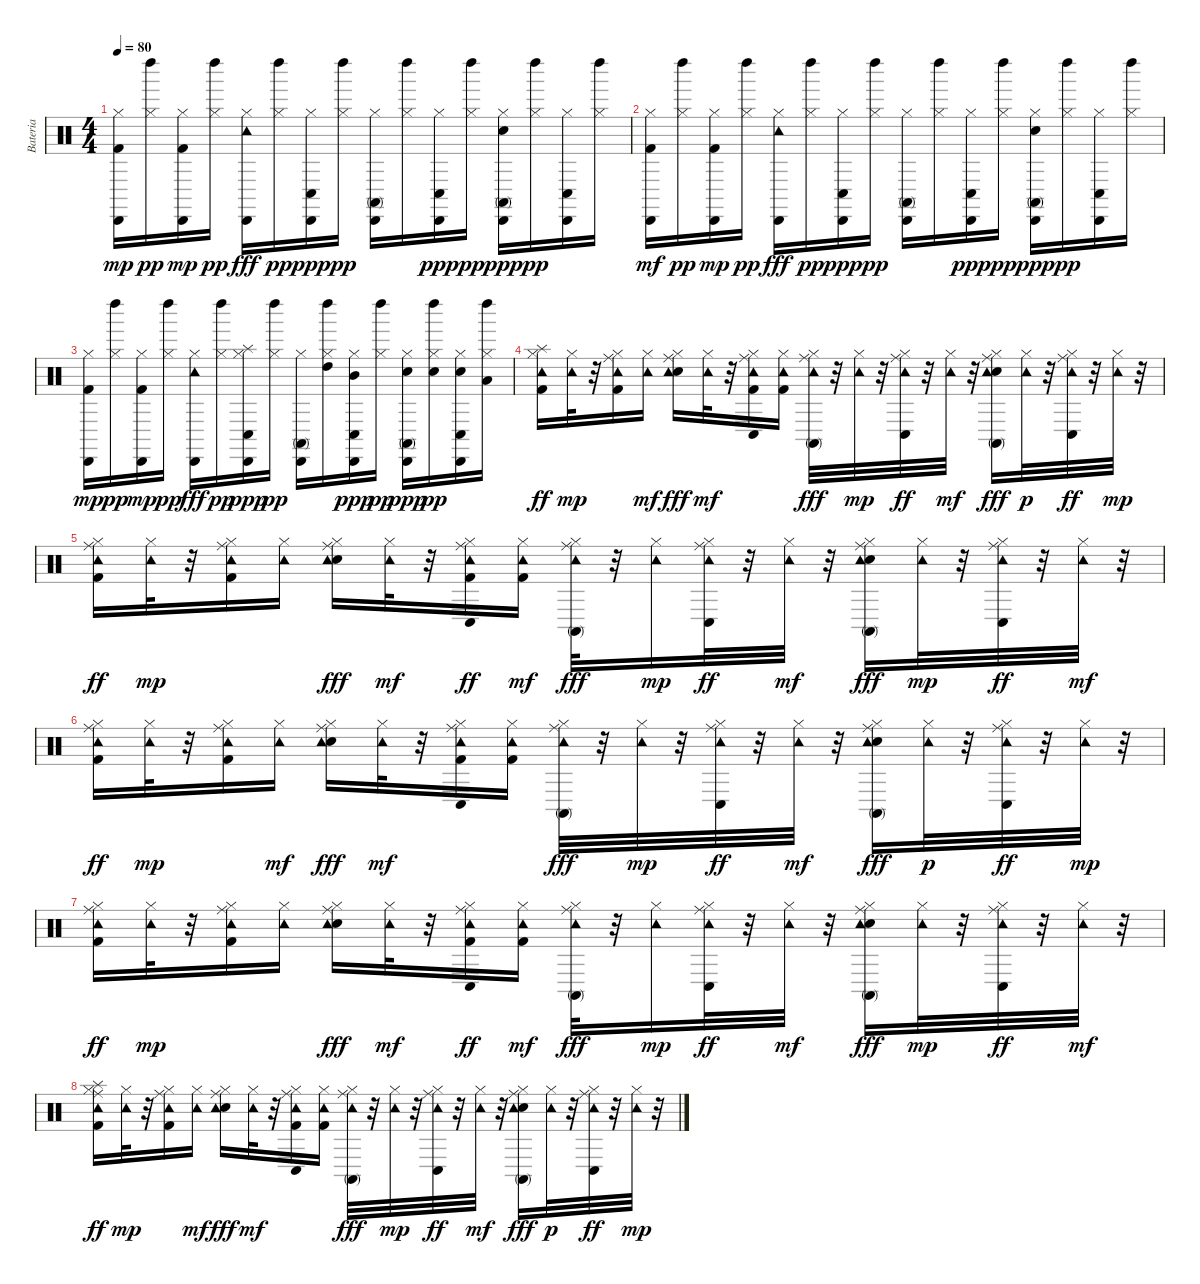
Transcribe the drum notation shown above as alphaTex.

\track ("Bateria" "Bateria") {instrument percussion}
\staff {score}
\articulation defaults
\ts (4 4)
\tempo 80
\clef neutral
\ks c
("Hi-Hat (closed)" "Cabasa (hit)" "Kick (hit) 2").16{dy mp} ("Hi-Hat (closed)" "Left Maraca (hit)").16{dy pp} ("Hi-Hat (closed)" "Cabasa (hit)" "Kick (hit) 2").16{dy mp} ("Hi-Hat (closed)" "Left Maraca (hit)").16{dy pp} ("Hi-Hat (closed)" "Cabasa (hit)" "Tambourine (hit)").16{dy fff} ("Hi-Hat (closed)" "Left Maraca (hit)").16{dy pp} ("Hi-Hat (closed)" "Conga low (hit)" "Cabasa (hit)").16{dy ppp} ("Hi-Hat (closed)" "Left Maraca (hit)").16{dy pp} ("Hi-Hat (closed)" "Conga high (mute)" "Cabasa (hit)").16 ("Hi-Hat (closed)" "Left Maraca (hit)").16 ("Hi-Hat (closed)" "Conga low (hit)" "Cabasa (hit)").16{dy ppp} ("Hi-Hat (closed)" "Left Maraca (hit)").16{dy pp} ("Electric Snare (hit)" "Hi-Hat (closed)" "Conga high (mute)" "Cabasa (hit)").16{dy ppp} ("Hi-Hat (closed)" "Left Maraca (hit)").16{dy pp} ("Hi-Hat (closed)" "Conga low (hit)" "Cabasa (hit)").16 ("Hi-Hat (closed)" "Left Maraca (hit)").16 |
("Hi-Hat (closed)" "Cabasa (hit)" "Kick (hit) 2").16{dy mf} ("Hi-Hat (closed)" "Left Maraca (hit)").16{dy pp} ("Hi-Hat (closed)" "Cabasa (hit)" "Kick (hit) 2").16{dy mp} ("Hi-Hat (closed)" "Left Maraca (hit)").16{dy pp} ("Hi-Hat (closed)" "Cabasa (hit)" "Tambourine (hit)").16{dy fff} ("Hi-Hat (closed)" "Left Maraca (hit)").16{dy pp} ("Hi-Hat (closed)" "Conga low (hit)" "Cabasa (hit)").16{dy ppp} ("Hi-Hat (closed)" "Left Maraca (hit)").16{dy pp} ("Hi-Hat (closed)" "Conga high (mute)" "Cabasa (hit)").16 ("Hi-Hat (closed)" "Left Maraca (hit)").16 ("Hi-Hat (closed)" "Conga low (hit)" "Cabasa (hit)").16{dy ppp} ("Hi-Hat (closed)" "Left Maraca (hit)").16{dy pp} ("Electric Snare (hit)" "Hi-Hat (closed)" "Conga high (mute)" "Cabasa (hit)").16{dy ppp} ("Hi-Hat (closed)" "Left Maraca (hit)").16{dy pp} ("Hi-Hat (closed)" "Conga low (hit)" "Cabasa (hit)").16 ("Hi-Hat (closed)" "Left Maraca (hit)").16 |
("Hi-Hat (closed)" "Cabasa (hit)" "Kick (hit) 2").16{dy mp} ("Hi-Hat (closed)" "Left Maraca (hit)").16{dy pp} ("Hi-Hat (closed)" "Cabasa (hit)" "Kick (hit) 2").16{dy mp} ("Hi-Hat (closed)" "Left Maraca (hit)").16{dy pp} ("Hi-Hat (closed)" "Cabasa (hit)" "Tambourine (hit)").16{dy fff} ("Hi-Hat (closed)" "Left Maraca (hit)").16{dy pp} ("Hi-Hat (closed)" "Conga low (hit)" "Splash (hit)" "Cabasa (hit)").16{dy ppp} ("Hi-Hat (closed)" "Left Maraca (hit)").16{dy pp} ("Hi-Hat (closed)" "Conga high (mute)" "Cabasa (hit)").16 ("Hi-Hat (closed)" "High Tom (hit)" "Left Maraca (hit)").16 ("Hi-Hat (closed)" "Conga low (hit)" "Mid Tom (hit)" "Cabasa (hit)").16{dy ppp} ("Hi-Hat (closed)" "Left Maraca (hit)").16{dy pp} ("Electric Snare (hit)" "Hi-Hat (closed)" "Conga high (mute)" "Cabasa (hit)").16{dy ppp} ("Hi-Hat (closed)" "Electric Snare (hit)" "Left Maraca (hit)").16{dy pp} ("Hi-Hat (closed)" "Conga low (hit)" "Electric Snare (hit)" "Cabasa (hit)").16 ("Hi-Hat (closed)" "Low Floor Tom (hit)" "Left Maraca (hit)").16 |
("Hi-Hat (closed)" "Tambourine (hit)" "Kick (hit) 2" "Splash (hit)").16{dy ff} ("Hi-Hat (closed)" "Tambourine (hit)").32{dy mp} r.32 ("Hi-Hat (closed)" "Ride (middle)" "Tambourine (hit)" "Kick (hit) 2").16 ("Hi-Hat (closed)" "Tambourine (hit)").16{dy mf} ("Electric Snare (hit)" "Hi-Hat (closed)" "Ride (middle)" "Tambourine (hit)").16{dy fff} ("Hi-Hat (closed)" "Tambourine (hit)").32{dy mf} r.32 ("Hi-Hat (closed)" "Conga low (hit)" "Ride (middle)" "Tambourine (hit)" "Kick (hit) 2").16 ("Hi-Hat (closed)" "Tambourine (hit)" "Kick (hit) 2").16 ("Hi-Hat (closed)" "Conga high (mute)" "Ride (middle)" "Tambourine (hit)").32{dy fff} r.32 ("Hi-Hat (closed)" "Tambourine (hit)").32{dy mp} r.32 ("Hi-Hat (closed)" "Conga low (hit)" "Ride (middle)" "Tambourine (hit)").32{dy ff} r.32 ("Hi-Hat (closed)" "Tambourine (hit)").32{dy mf} r.32 ("Electric Snare (hit)" "Hi-Hat (closed)" "Conga high (mute)" "Ride (middle)" "Tambourine (hit)").16{dy fff} ("Hi-Hat (closed)" "Tambourine (hit)").32{dy p} r.32 ("Hi-Hat (closed)" "Conga low (hit)" "Ride (middle)" "Tambourine (hit)").32{dy ff} r.32 ("Hi-Hat (closed)" "Tambourine (hit)").32{dy mp} r.32 |
("Hi-Hat (closed)" "Ride (middle)" "Tambourine (hit)" "Kick (hit) 2").16{dy ff} ("Hi-Hat (closed)" "Tambourine (hit)").32{dy mp} r.32 ("Hi-Hat (closed)" "Ride (middle)" "Tambourine (hit)" "Kick (hit) 2").16 ("Hi-Hat (closed)" "Tambourine (hit)").16 ("Electric Snare (hit)" "Hi-Hat (closed)" "Ride (middle)" "Tambourine (hit)").16{dy fff} ("Hi-Hat (closed)" "Tambourine (hit)").32{dy mf} r.32 ("Hi-Hat (closed)" "Conga low (hit)" "Ride (middle)" "Tambourine (hit)" "Kick (hit) 2").16{dy ff} ("Hi-Hat (closed)" "Tambourine (hit)" "Kick (hit) 2").16{dy mf} ("Hi-Hat (closed)" "Conga high (mute)" "Ride (middle)" "Tambourine (hit)").32{dy fff} r.32 ("Hi-Hat (closed)" "Tambourine (hit)").16{dy mp} ("Hi-Hat (closed)" "Conga low (hit)" "Ride (middle)" "Tambourine (hit)").32{dy ff} r.32 ("Hi-Hat (closed)" "Tambourine (hit)").32{dy mf} r.32 ("Electric Snare (hit)" "Hi-Hat (closed)" "Conga high (mute)" "Ride (middle)" "Tambourine (hit)").16{dy fff} ("Hi-Hat (closed)" "Tambourine (hit)").32{dy mp} r.32 ("Hi-Hat (closed)" "Conga low (hit)" "Ride (middle)" "Tambourine (hit)").32{dy ff} r.32 ("Hi-Hat (closed)" "Tambourine (hit)").32{dy mf} r.32 |
("Hi-Hat (closed)" "Ride (middle)" "Tambourine (hit)" "Kick (hit) 2").16{dy ff} ("Hi-Hat (closed)" "Tambourine (hit)").32{dy mp} r.32 ("Hi-Hat (closed)" "Ride (middle)" "Tambourine (hit)" "Kick (hit) 2").16 ("Hi-Hat (closed)" "Tambourine (hit)").16{dy mf} ("Electric Snare (hit)" "Hi-Hat (closed)" "Ride (middle)" "Tambourine (hit)").16{dy fff} ("Hi-Hat (closed)" "Tambourine (hit)").32{dy mf} r.32 ("Hi-Hat (closed)" "Conga low (hit)" "Ride (middle)" "Tambourine (hit)" "Kick (hit) 2").16 ("Hi-Hat (closed)" "Tambourine (hit)" "Kick (hit) 2").16 ("Hi-Hat (closed)" "Conga high (mute)" "Ride (middle)" "Tambourine (hit)").32{dy fff} r.32 ("Hi-Hat (closed)" "Tambourine (hit)").32{dy mp} r.32 ("Hi-Hat (closed)" "Conga low (hit)" "Ride (middle)" "Tambourine (hit)").32{dy ff} r.32 ("Hi-Hat (closed)" "Tambourine (hit)").32{dy mf} r.32 ("Electric Snare (hit)" "Hi-Hat (closed)" "Conga high (mute)" "Ride (middle)" "Tambourine (hit)").16{dy fff} ("Hi-Hat (closed)" "Tambourine (hit)").32{dy p} r.32 ("Hi-Hat (closed)" "Conga low (hit)" "Ride (middle)" "Tambourine (hit)").32{dy ff} r.32 ("Hi-Hat (closed)" "Tambourine (hit)").32{dy mp} r.32 |
("Hi-Hat (closed)" "Ride (middle)" "Tambourine (hit)" "Kick (hit) 2").16{dy ff} ("Hi-Hat (closed)" "Tambourine (hit)").32{dy mp} r.32 ("Hi-Hat (closed)" "Ride (middle)" "Tambourine (hit)" "Kick (hit) 2").16 ("Hi-Hat (closed)" "Tambourine (hit)").16 ("Electric Snare (hit)" "Hi-Hat (closed)" "Ride (middle)" "Tambourine (hit)").16{dy fff} ("Hi-Hat (closed)" "Tambourine (hit)").32{dy mf} r.32 ("Hi-Hat (closed)" "Conga low (hit)" "Ride (middle)" "Tambourine (hit)" "Kick (hit) 2").16{dy ff} ("Hi-Hat (closed)" "Tambourine (hit)" "Kick (hit) 2").16{dy mf} ("Hi-Hat (closed)" "Conga high (mute)" "Ride (middle)" "Tambourine (hit)").32{dy fff} r.32 ("Hi-Hat (closed)" "Tambourine (hit)").16{dy mp} ("Hi-Hat (closed)" "Conga low (hit)" "Ride (middle)" "Tambourine (hit)").32{dy ff} r.32 ("Hi-Hat (closed)" "Tambourine (hit)").32{dy mf} r.32 ("Electric Snare (hit)" "Hi-Hat (closed)" "Conga high (mute)" "Ride (middle)" "Tambourine (hit)").16{dy fff} ("Hi-Hat (closed)" "Tambourine (hit)").32{dy mp} r.32 ("Hi-Hat (closed)" "Conga low (hit)" "Ride (middle)" "Tambourine (hit)").32{dy ff} r.32 ("Hi-Hat (closed)" "Tambourine (hit)").32{dy mf} r.32 |
("Hi-Hat (closed)" "Ride (middle)" "Splash (hit)" "Tambourine (hit)" "Kick (hit) 2").16{dy ff} ("Hi-Hat (closed)" "Tambourine (hit)").32{dy mp} r.32 ("Hi-Hat (closed)" "Ride (middle)" "Tambourine (hit)" "Kick (hit) 2").16 ("Hi-Hat (closed)" "Tambourine (hit)").16{dy mf} ("Electric Snare (hit)" "Hi-Hat (closed)" "Ride (middle)" "Tambourine (hit)").16{dy fff} ("Hi-Hat (closed)" "Tambourine (hit)").32{dy mf} r.32 ("Hi-Hat (closed)" "Conga low (hit)" "Ride (middle)" "Tambourine (hit)" "Kick (hit) 2").16 ("Hi-Hat (closed)" "Tambourine (hit)" "Kick (hit) 2").16 ("Hi-Hat (closed)" "Conga high (mute)" "Ride (middle)" "Tambourine (hit)").32{dy fff} r.32 ("Hi-Hat (closed)" "Tambourine (hit)").32{dy mp} r.32 ("Hi-Hat (closed)" "Conga low (hit)" "Ride (middle)" "Tambourine (hit)").32{dy ff} r.32 ("Hi-Hat (closed)" "Tambourine (hit)").32{dy mf} r.32 ("Electric Snare (hit)" "Hi-Hat (closed)" "Conga high (mute)" "Ride (middle)" "Tambourine (hit)").16{dy fff} ("Hi-Hat (closed)" "Tambourine (hit)").32{dy p} r.32 ("Hi-Hat (closed)" "Conga low (hit)" "Ride (middle)" "Tambourine (hit)").32{dy ff} r.32 ("Hi-Hat (closed)" "Tambourine (hit)").32{dy mp} r.32
